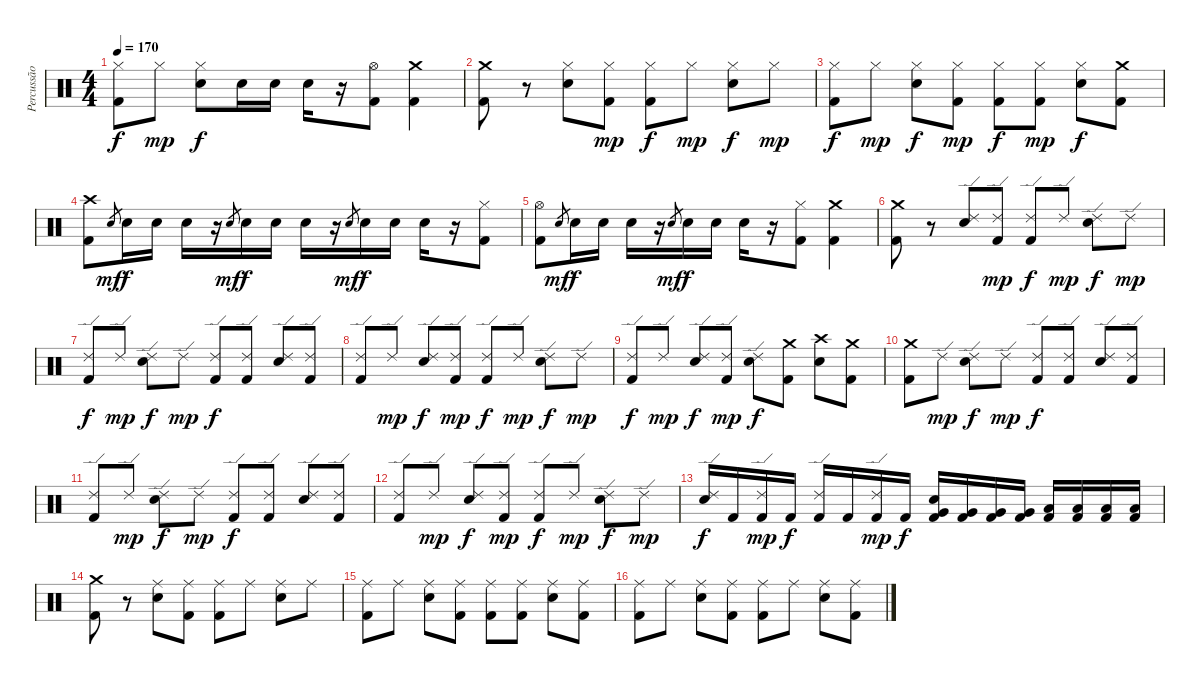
\track ("Percussão" "Percussão") {instrument percussion}
\staff {score}
\articulation defaults
\ts (4 4)
\tempo 170
\clef neutral
\ks c
("Hi-Hat (closed)" "Kick (hit) 2").8{dy f} "Hi-Hat (closed)".8{dy mp} ("Hi-Hat (closed)" "Electric Snare (hit)").8{dy f} "Electric Snare (hit)".16 "Electric Snare (hit)".16 "Electric Snare (hit)".16 r.16 ("Hi-Hat (open)" "Kick (hit) 2").8 ("Crash medium (hit)" "Kick (hit) 2").4 |
("Crash medium (hit)" "Kick (hit) 2").8 r.8 ("Hi-Hat (closed)" "Electric Snare (hit)").8 ("Hi-Hat (closed)" "Kick (hit) 2").8{dy mp} ("Hi-Hat (closed)" "Kick (hit) 2").8{dy f} "Hi-Hat (closed)".8{dy mp} ("Hi-Hat (closed)" "Electric Snare (hit)").8{dy f} "Hi-Hat (closed)".8{dy mp} |
("Hi-Hat (closed)" "Kick (hit) 2").8{dy f} "Hi-Hat (closed)".8{dy mp} ("Hi-Hat (closed)" "Electric Snare (hit)").8{dy f} ("Hi-Hat (closed)" "Kick (hit) 2").8{dy mp} ("Hi-Hat (closed)" "Kick (hit) 2").8{dy f} ("Hi-Hat (closed)" "Kick (hit) 2").8{dy mp} ("Hi-Hat (closed)" "Electric Snare (hit)").8{dy f} ("Crash medium (hit)" "Kick (hit) 2").8 |
("Crash high (hit)" "Kick (hit) 2").8 "Electric Snare (hit)".8{gr dy mf} "Electric Snare (hit)".16{dy f} "Electric Snare (hit)".16 "Electric Snare (hit)".16 r.16 "Electric Snare (hit)".8{gr dy mf} "Electric Snare (hit)".16{dy f} "Electric Snare (hit)".16 "Electric Snare (hit)".16 r.16 "Electric Snare (hit)".8{gr dy mf} "Electric Snare (hit)".16{dy f} "Electric Snare (hit)".16 "Electric Snare (hit)".16 r.16 ("Hi-Hat (closed)" "Kick (hit) 2").8 |
("Hi-Hat (open)" "Kick (hit) 2").8 "Electric Snare (hit)".8{gr dy mf} "Electric Snare (hit)".16{dy f} "Electric Snare (hit)".16 "Electric Snare (hit)".16 r.16 "Electric Snare (hit)".8{gr dy mf} "Electric Snare (hit)".16{dy f} "Electric Snare (hit)".16 "Electric Snare (hit)".16 r.16 ("Hi-Hat (closed)" "Kick (hit) 2").8 ("Crash medium (hit)" "Kick (hit) 2").4 |
("Crash medium (hit)" "Kick (hit) 2").8 r.8 ("Ride (edge) 2" "Electric Snare (hit)").8 ("Ride (edge) 2" "Kick (hit) 2").8{dy mp} ("Ride (edge) 2" "Kick (hit) 2").8{dy f} "Ride (edge) 2".8{dy mp} ("Ride (edge) 2" "Electric Snare (hit)").8{dy f} "Ride (edge) 2".8{dy mp} |
("Ride (edge) 2" "Kick (hit) 2").8{dy f} "Ride (edge) 2".8{dy mp} ("Ride (edge) 2" "Electric Snare (hit)").8{dy f} "Ride (edge) 2".8{dy mp} ("Ride (edge) 2" "Kick (hit) 2").8{dy f} ("Ride (edge) 2" "Kick (hit) 2").8 ("Ride (edge) 2" "Electric Snare (hit)").8 ("Ride (edge) 2" "Kick (hit) 2").8 |
("Ride (edge) 2" "Kick (hit) 2").8 "Ride (edge) 2".8{dy mp} ("Ride (edge) 2" "Electric Snare (hit)").8{dy f} ("Ride (edge) 2" "Kick (hit) 2").8{dy mp} ("Ride (edge) 2" "Kick (hit) 2").8{dy f} "Ride (edge) 2".8{dy mp} ("Ride (edge) 2" "Electric Snare (hit)").8{dy f} "Ride (edge) 2".8{dy mp} |
("Ride (edge) 2" "Kick (hit) 2").8{dy f} "Ride (edge) 2".8{dy mp} ("Ride (edge) 2" "Electric Snare (hit)").8{dy f} ("Ride (edge) 2" "Kick (hit) 2").8{dy mp} ("Ride (edge) 2" "Electric Snare (hit)").8{dy f} ("Crash medium (hit)" "Kick (hit) 2").8 ("Crash high (hit)" "Electric Snare (hit)").8 ("Crash medium (hit)" "Kick (hit) 2").8 |
("Crash medium (hit)" "Kick (hit) 2").8 "Ride (edge) 2".8{dy mp} ("Ride (edge) 2" "Electric Snare (hit)").8{dy f} "Ride (edge) 2".8{dy mp} ("Ride (edge) 2" "Kick (hit) 2").8{dy f} ("Ride (edge) 2" "Kick (hit) 2").8 ("Ride (edge) 2" "Electric Snare (hit)").8 ("Ride (edge) 2" "Kick (hit) 2").8 |
("Ride (edge) 2" "Kick (hit) 2").8 "Ride (edge) 2".8{dy mp} ("Ride (edge) 2" "Electric Snare (hit)").8{dy f} "Ride (edge) 2".8{dy mp} ("Ride (edge) 2" "Kick (hit) 2").8{dy f} ("Ride (edge) 2" "Kick (hit) 2").8 ("Ride (edge) 2" "Electric Snare (hit)").8 ("Ride (edge) 2" "Kick (hit) 2").8 |
("Ride (edge) 2" "Kick (hit) 2").8 "Ride (edge) 2".8{dy mp} ("Ride (edge) 2" "Electric Snare (hit)").8{dy f} ("Ride (edge) 2" "Kick (hit) 2").8{dy mp} ("Ride (edge) 2" "Kick (hit) 2").8{dy f} "Ride (edge) 2".8{dy mp} ("Ride (edge) 2" "Electric Snare (hit)").8{dy f} "Ride (edge) 2".8{dy mp} |
("Ride (edge) 2" "Electric Snare (hit)").16{dy f} "Kick (hit) 2".16 ("Ride (edge) 2" "Kick (hit) 2").16{dy mp} "Kick (hit) 2".16{dy f} ("Ride (edge) 2" "Kick (hit) 2").16 "Kick (hit) 2".16 ("Ride (edge) 2" "Kick (hit) 2").16{dy mp} "Kick (hit) 2".16{dy f} ("Electric Snare (hit)" "Very Low Tom (hit)" "Kick (hit) 2").16 ("Very Low Tom (hit)" "Kick (hit) 2").16 ("Very Low Tom (hit)" "Kick (hit) 2").16 ("Very Low Tom (hit)" "Kick (hit) 2").16 ("Low Floor Tom (hit)" "Kick (hit) 2").16 ("Low Floor Tom (hit)" "Kick (hit) 2").16 ("Low Floor Tom (hit)" "Kick (hit) 2").16 ("Low Floor Tom (hit)" "Kick (hit) 2").16 |
("Crash medium (hit)" "Kick (hit) 2").8 r.8 ("Ride (middle)" "Electric Snare (hit)").8 ("Ride (middle)" "Kick (hit) 2").8 ("Ride (middle)" "Kick (hit) 2").8 "Ride (middle)".8 ("Ride (middle)" "Electric Snare (hit)").8 "Ride (middle)".8 |
("Ride (middle)" "Kick (hit) 2").8 "Ride (middle)".8 ("Ride (middle)" "Electric Snare (hit)").8 ("Ride (middle)" "Kick (hit) 2").8 ("Ride (middle)" "Kick (hit) 2").8 ("Ride (middle)" "Kick (hit) 2").8 ("Ride (middle)" "Electric Snare (hit)").8 ("Ride (middle)" "Kick (hit) 2").8 |
("Ride (middle)" "Kick (hit) 2").8 "Ride (middle)".8 ("Ride (middle)" "Electric Snare (hit)").8 ("Ride (middle)" "Kick (hit) 2").8 ("Ride (middle)" "Kick (hit) 2").8 "Ride (middle)".8 ("Ride (middle)" "Electric Snare (hit)").8 ("Ride (middle)" "Kick (hit) 2").8
